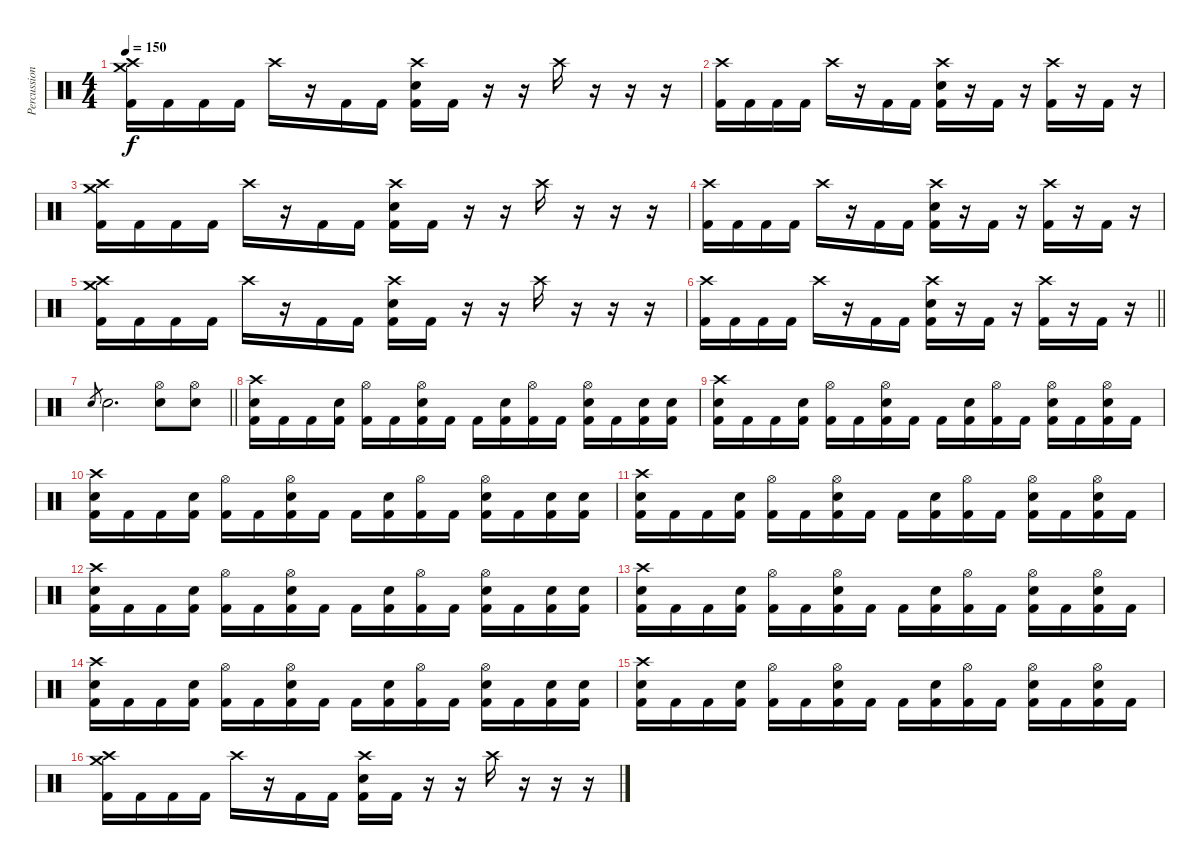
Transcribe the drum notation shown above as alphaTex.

\track ("Percussion" "Percussion") {instrument percussion}
\staff {score}
\articulation defaults
\ts (4 4)
\tempo 150
\clef neutral
\ks c
("Crash high (hit)" "Crash medium (hit)" "Kick (hit) 2").16{dy f} "Kick (hit) 2".16 "Kick (hit) 2".16 "Kick (hit) 2".16 "Crash high (hit)".16 r.16 "Kick (hit) 2".16 "Kick (hit) 2".16 ("Crash high (hit)" "Snare (hit) 2" "Kick (hit) 2").16 "Kick (hit) 2".16 r.16 r.16 "Crash high (hit)".16 r.16 r.16 r.16 |
("Crash high (hit)" "Kick (hit) 2").16 "Kick (hit) 2".16 "Kick (hit) 2".16 "Kick (hit) 2".16 "Crash high (hit)".16 r.16 "Kick (hit) 2".16 "Kick (hit) 2".16 ("Crash high (hit)" "Snare (hit) 2" "Kick (hit) 2").16 r.16 "Kick (hit) 2".16 r.16 ("Crash high (hit)" "Kick (hit) 2").16 r.16 "Kick (hit) 2".16 r.16 |
("Crash high (hit)" "Crash medium (hit)" "Kick (hit) 2").16 "Kick (hit) 2".16 "Kick (hit) 2".16 "Kick (hit) 2".16 "Crash high (hit)".16 r.16 "Kick (hit) 2".16 "Kick (hit) 2".16 ("Crash high (hit)" "Snare (hit) 2" "Kick (hit) 2").16 "Kick (hit) 2".16 r.16 r.16 "Crash high (hit)".16 r.16 r.16 r.16 |
("Crash high (hit)" "Kick (hit) 2").16 "Kick (hit) 2".16 "Kick (hit) 2".16 "Kick (hit) 2".16 "Crash high (hit)".16 r.16 "Kick (hit) 2".16 "Kick (hit) 2".16 ("Crash high (hit)" "Snare (hit) 2" "Kick (hit) 2").16 r.16 "Kick (hit) 2".16 r.16 ("Crash high (hit)" "Kick (hit) 2").16 r.16 "Kick (hit) 2".16 r.16 |
("Crash high (hit)" "Crash medium (hit)" "Kick (hit) 2").16 "Kick (hit) 2".16 "Kick (hit) 2".16 "Kick (hit) 2".16 "Crash high (hit)".16 r.16 "Kick (hit) 2".16 "Kick (hit) 2".16 ("Crash high (hit)" "Snare (hit) 2" "Kick (hit) 2").16 "Kick (hit) 2".16 r.16 r.16 "Crash high (hit)".16 r.16 r.16 r.16 |
\barLineRight lightlight
("Crash high (hit)" "Kick (hit) 2").16 "Kick (hit) 2".16 "Kick (hit) 2".16 "Kick (hit) 2".16 "Crash high (hit)".16 r.16 "Kick (hit) 2".16 "Kick (hit) 2".16 ("Crash high (hit)" "Snare (hit) 2" "Kick (hit) 2").16 r.16 "Kick (hit) 2".16 r.16 ("Crash high (hit)" "Kick (hit) 2").16 r.16 "Kick (hit) 2".16 r.16 |
\section ("" "")
\barLineRight lightlight "Snare (hit) 2".8{gr} "Snare (hit) 2".2{d}
("Hi-Hat (open)" "Snare (hit) 2").8 ("Hi-Hat (open)" "Snare (hit) 2").8 |
\section ("" "")
("Crash high (hit)" "Snare (hit) 2" "Kick (hit) 2").16 "Kick (hit) 2".16 "Kick (hit) 2".16 ("Snare (hit) 2" "Kick (hit) 2").16 ("Hi-Hat (open)" "Kick (hit) 2").16 "Kick (hit) 2".16 ("Hi-Hat (open)" "Snare (hit) 2" "Kick (hit) 2").16 "Kick (hit) 2".16 "Kick (hit) 2".16 ("Snare (hit) 2" "Kick (hit) 2").16 ("Hi-Hat (open)" "Kick (hit) 2").16 "Kick (hit) 2".16 ("Hi-Hat (open)" "Snare (hit) 2" "Kick (hit) 2").16 "Kick (hit) 2".16 ("Snare (hit) 2" "Kick (hit) 2").16 ("Snare (hit) 2" "Kick (hit) 2").16 |
("Crash high (hit)" "Snare (hit) 2" "Kick (hit) 2").16 "Kick (hit) 2".16 "Kick (hit) 2".16 ("Snare (hit) 2" "Kick (hit) 2").16 ("Hi-Hat (open)" "Kick (hit) 2").16 "Kick (hit) 2".16 ("Hi-Hat (open)" "Snare (hit) 2" "Kick (hit) 2").16 "Kick (hit) 2".16 "Kick (hit) 2".16 ("Snare (hit) 2" "Kick (hit) 2").16 ("Hi-Hat (open)" "Kick (hit) 2").16 "Kick (hit) 2".16 ("Hi-Hat (open)" "Snare (hit) 2" "Kick (hit) 2").16 "Kick (hit) 2".16 ("Hi-Hat (open)" "Snare (hit) 2" "Kick (hit) 2").16 "Kick (hit) 2".16 |
("Crash high (hit)" "Snare (hit) 2" "Kick (hit) 2").16 "Kick (hit) 2".16 "Kick (hit) 2".16 ("Snare (hit) 2" "Kick (hit) 2").16 ("Hi-Hat (open)" "Kick (hit) 2").16 "Kick (hit) 2".16 ("Hi-Hat (open)" "Snare (hit) 2" "Kick (hit) 2").16 "Kick (hit) 2".16 "Kick (hit) 2".16 ("Snare (hit) 2" "Kick (hit) 2").16 ("Hi-Hat (open)" "Kick (hit) 2").16 "Kick (hit) 2".16 ("Hi-Hat (open)" "Snare (hit) 2" "Kick (hit) 2").16 "Kick (hit) 2".16 ("Snare (hit) 2" "Kick (hit) 2").16 ("Snare (hit) 2" "Kick (hit) 2").16 |
("Crash high (hit)" "Snare (hit) 2" "Kick (hit) 2").16 "Kick (hit) 2".16 "Kick (hit) 2".16 ("Snare (hit) 2" "Kick (hit) 2").16 ("Hi-Hat (open)" "Kick (hit) 2").16 "Kick (hit) 2".16 ("Hi-Hat (open)" "Snare (hit) 2" "Kick (hit) 2").16 "Kick (hit) 2".16 "Kick (hit) 2".16 ("Snare (hit) 2" "Kick (hit) 2").16 ("Hi-Hat (open)" "Kick (hit) 2").16 "Kick (hit) 2".16 ("Hi-Hat (open)" "Snare (hit) 2" "Kick (hit) 2").16 "Kick (hit) 2".16 ("Hi-Hat (open)" "Snare (hit) 2" "Kick (hit) 2").16 "Kick (hit) 2".16 |
("Crash high (hit)" "Snare (hit) 2" "Kick (hit) 2").16 "Kick (hit) 2".16 "Kick (hit) 2".16 ("Snare (hit) 2" "Kick (hit) 2").16 ("Hi-Hat (open)" "Kick (hit) 2").16 "Kick (hit) 2".16 ("Hi-Hat (open)" "Snare (hit) 2" "Kick (hit) 2").16 "Kick (hit) 2".16 "Kick (hit) 2".16 ("Snare (hit) 2" "Kick (hit) 2").16 ("Hi-Hat (open)" "Kick (hit) 2").16 "Kick (hit) 2".16 ("Hi-Hat (open)" "Snare (hit) 2" "Kick (hit) 2").16 "Kick (hit) 2".16 ("Snare (hit) 2" "Kick (hit) 2").16 ("Snare (hit) 2" "Kick (hit) 2").16 |
("Crash high (hit)" "Snare (hit) 2" "Kick (hit) 2").16 "Kick (hit) 2".16 "Kick (hit) 2".16 ("Snare (hit) 2" "Kick (hit) 2").16 ("Hi-Hat (open)" "Kick (hit) 2").16 "Kick (hit) 2".16 ("Hi-Hat (open)" "Snare (hit) 2" "Kick (hit) 2").16 "Kick (hit) 2".16 "Kick (hit) 2".16 ("Snare (hit) 2" "Kick (hit) 2").16 ("Hi-Hat (open)" "Kick (hit) 2").16 "Kick (hit) 2".16 ("Hi-Hat (open)" "Snare (hit) 2" "Kick (hit) 2").16 "Kick (hit) 2".16 ("Hi-Hat (open)" "Snare (hit) 2" "Kick (hit) 2").16 "Kick (hit) 2".16 |
("Crash high (hit)" "Snare (hit) 2" "Kick (hit) 2").16 "Kick (hit) 2".16 "Kick (hit) 2".16 ("Snare (hit) 2" "Kick (hit) 2").16 ("Hi-Hat (open)" "Kick (hit) 2").16 "Kick (hit) 2".16 ("Hi-Hat (open)" "Snare (hit) 2" "Kick (hit) 2").16 "Kick (hit) 2".16 "Kick (hit) 2".16 ("Snare (hit) 2" "Kick (hit) 2").16 ("Hi-Hat (open)" "Kick (hit) 2").16 "Kick (hit) 2".16 ("Hi-Hat (open)" "Snare (hit) 2" "Kick (hit) 2").16 "Kick (hit) 2".16 ("Snare (hit) 2" "Kick (hit) 2").16 ("Snare (hit) 2" "Kick (hit) 2").16 |
("Crash high (hit)" "Snare (hit) 2" "Kick (hit) 2").16 "Kick (hit) 2".16 "Kick (hit) 2".16 ("Snare (hit) 2" "Kick (hit) 2").16 ("Hi-Hat (open)" "Kick (hit) 2").16 "Kick (hit) 2".16 ("Hi-Hat (open)" "Snare (hit) 2" "Kick (hit) 2").16 "Kick (hit) 2".16 "Kick (hit) 2".16 ("Snare (hit) 2" "Kick (hit) 2").16 ("Hi-Hat (open)" "Kick (hit) 2").16 "Kick (hit) 2".16 ("Hi-Hat (open)" "Snare (hit) 2" "Kick (hit) 2").16 "Kick (hit) 2".16 ("Hi-Hat (open)" "Snare (hit) 2" "Kick (hit) 2").16 "Kick (hit) 2".16 |
("Crash high (hit)" "Crash medium (hit)" "Kick (hit) 2").16 "Kick (hit) 2".16 "Kick (hit) 2".16 "Kick (hit) 2".16 "Crash high (hit)".16 r.16 "Kick (hit) 2".16 "Kick (hit) 2".16 ("Crash high (hit)" "Snare (hit) 2" "Kick (hit) 2").16 "Kick (hit) 2".16 r.16 r.16 "Crash high (hit)".16 r.16 r.16 r.16
